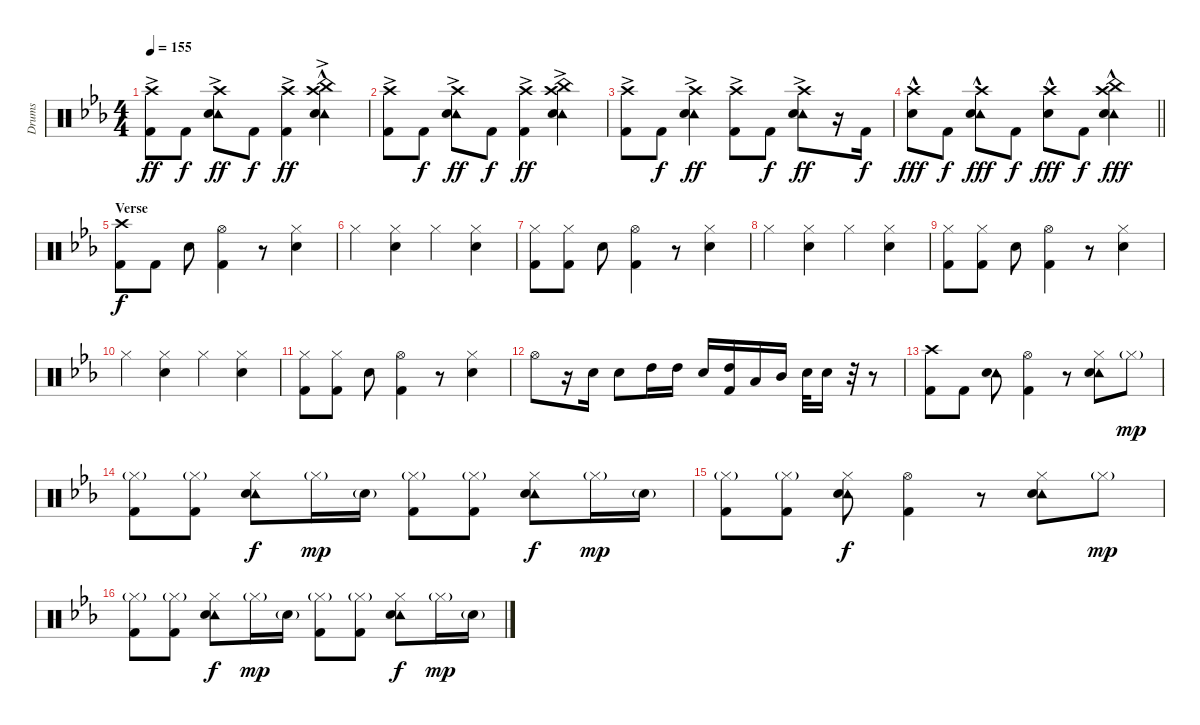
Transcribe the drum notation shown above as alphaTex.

\track ("Drums" "Drums") {instrument percussion}
\staff {score}
\articulation defaults
\ts (4 4)
\tempo 155
\clef neutral
\ks eb
("Crash high (hit)"{ac} "Kick (hit) 2").8{dy ff} "Kick (hit) 2".8{dy f} ("Tambourine (hit)" "Crash high (hit)"{ac} "Snare (hit) 2").8{dy ff} "Kick (hit) 2".8{dy f} ("Crash high (hit)"{ac} "Kick (hit) 2").4{dy ff} ("Tambourine (hit)" "China (hit)"{hac} "Crash high (hit)"{ac} "Snare (hit) 2").4 |
("Crash high (hit)"{ac} "Kick (hit) 2").8 "Kick (hit) 2".8{dy f} ("Tambourine (hit)" "Crash high (hit)"{ac} "Snare (hit) 2").8{dy ff} "Kick (hit) 2".8{dy f} ("Crash high (hit)"{ac} "Kick (hit) 2").4{dy ff} ("Tambourine (hit)" "China (hit)"{ac} "Crash high (hit)"{ac} "Snare (hit) 2").4 |
("Crash high (hit)"{ac} "Kick (hit) 2").8 "Kick (hit) 2".8{dy f} ("Tambourine (hit)" "Crash high (hit)"{ac} "Snare (hit) 2").4{dy ff} ("Crash high (hit)"{ac} "Kick (hit) 2").8 "Kick (hit) 2".8{dy f} ("Tambourine (hit)" "Crash high (hit)"{ac} "Snare (hit) 2").8{dy ff} r.16 "Kick (hit) 2".16{dy f} |
\barLineRight lightlight
("Crash high (hit)"{hac} "Snare (hit) 2").8{dy fff} "Kick (hit) 2".8{dy f} ("Tambourine (hit)" "Crash high (hit)"{hac} "Snare (hit) 2").8{dy fff} "Kick (hit) 2".8{dy f} ("Crash high (hit)"{hac} "Snare (hit) 2").8{dy fff} "Kick (hit) 2".8{dy f} ("Tambourine (hit)" "China (hit)"{hac} "Crash high (hit)"{hac} "Snare (hit) 2").4{dy fff} |
\section ("" "Verse")
("Crash high (hit)" "Kick (hit) 2").8{dy f} "Kick (hit) 2".8 "Snare (hit) 2".8 ("Hi-Hat (open)" "Kick (hit) 2").4 r.8 ("Hi-Hat (closed)" "Snare (hit) 2").4 |
"Hi-Hat (closed)".4 ("Hi-Hat (closed)" "Snare (hit) 2").4 "Hi-Hat (closed)".4 ("Hi-Hat (closed)" "Snare (hit) 2").4 |
("Hi-Hat (closed)" "Kick (hit) 2").8 ("Hi-Hat (closed)" "Kick (hit) 2").8 "Snare (hit) 2".8 ("Hi-Hat (open)" "Kick (hit) 2").4 r.8 ("Hi-Hat (closed)" "Snare (hit) 2").4 |
"Hi-Hat (closed)".4 ("Hi-Hat (closed)" "Snare (hit) 2").4 "Hi-Hat (closed)".4 ("Hi-Hat (closed)" "Snare (hit) 2").4 |
("Hi-Hat (closed)" "Kick (hit) 2").8 ("Hi-Hat (closed)" "Kick (hit) 2").8 "Snare (hit) 2".8 ("Hi-Hat (open)" "Kick (hit) 2").4 r.8 ("Hi-Hat (closed)" "Snare (hit) 2").4 |
"Hi-Hat (closed)".4 ("Hi-Hat (closed)" "Snare (hit) 2").4 "Hi-Hat (closed)".4 ("Hi-Hat (closed)" "Snare (hit) 2").4 |
("Hi-Hat (closed)" "Kick (hit) 2").8 ("Hi-Hat (closed)" "Kick (hit) 2").8 "Snare (hit) 2".8 ("Hi-Hat (open)" "Kick (hit) 2").4 r.8 ("Hi-Hat (closed)" "Snare (hit) 2").4 |
"Hi-Hat (open)".8 r.16 "Snare (hit) 2".16 "Snare (hit) 2".8 "High Tom (hit)".16 "High Tom (hit)".16 "Snare (hit) 2".16 ("High Tom (hit)" "Kick (hit) 2").16 "Low Tom (hit)".16 "Mid Tom (hit)".16 "Snare (hit) 2".32 "Snare (hit) 2".16 r.32 r.8 |
("Crash high (hit)" "Kick (hit) 2").8 "Kick (hit) 2".8 ("Tambourine (hit)" "Snare (hit) 2").8 ("Hi-Hat (open)" "Kick (hit) 2").4 r.8 ("Tambourine (hit)" "Hi-Hat (closed)" "Snare (hit) 2").8 "Hi-Hat (closed)"{g}.8{dy mp} |
("Hi-Hat (closed)"{g} "Kick (hit) 2").8 ("Hi-Hat (closed)"{g} "Kick (hit) 2").8 ("Tambourine (hit)" "Hi-Hat (closed)" "Snare (hit) 2").8{dy f} "Hi-Hat (closed)"{g}.16{dy mp} "Snare (hit) 2"{g}.16 ("Hi-Hat (closed)"{g} "Kick (hit) 2").8 ("Hi-Hat (closed)"{g} "Kick (hit) 2").8 ("Tambourine (hit)" "Hi-Hat (closed)" "Snare (hit) 2").8{dy f} "Hi-Hat (closed)"{g}.16{dy mp} "Snare (hit) 2"{g}.16 |
("Hi-Hat (closed)"{g} "Kick (hit) 2").8 ("Hi-Hat (closed)"{g} "Kick (hit) 2").8 ("Tambourine (hit)" "Hi-Hat (closed)" "Snare (hit) 2").8{dy f} ("Hi-Hat (open)" "Kick (hit) 2").4 r.8 ("Tambourine (hit)" "Hi-Hat (closed)" "Snare (hit) 2").8 "Hi-Hat (closed)"{g}.8{dy mp} |
("Hi-Hat (closed)"{g} "Kick (hit) 2").8 ("Hi-Hat (closed)"{g} "Kick (hit) 2").8 ("Tambourine (hit)" "Hi-Hat (closed)" "Snare (hit) 2").8{dy f} "Hi-Hat (closed)"{g}.16{dy mp} "Snare (hit) 2"{g}.16 ("Hi-Hat (closed)"{g} "Kick (hit) 2").8 ("Hi-Hat (closed)"{g} "Kick (hit) 2").8 ("Tambourine (hit)" "Hi-Hat (closed)" "Snare (hit) 2").8{dy f} "Hi-Hat (closed)"{g}.16{dy mp} "Snare (hit) 2"{g}.16
